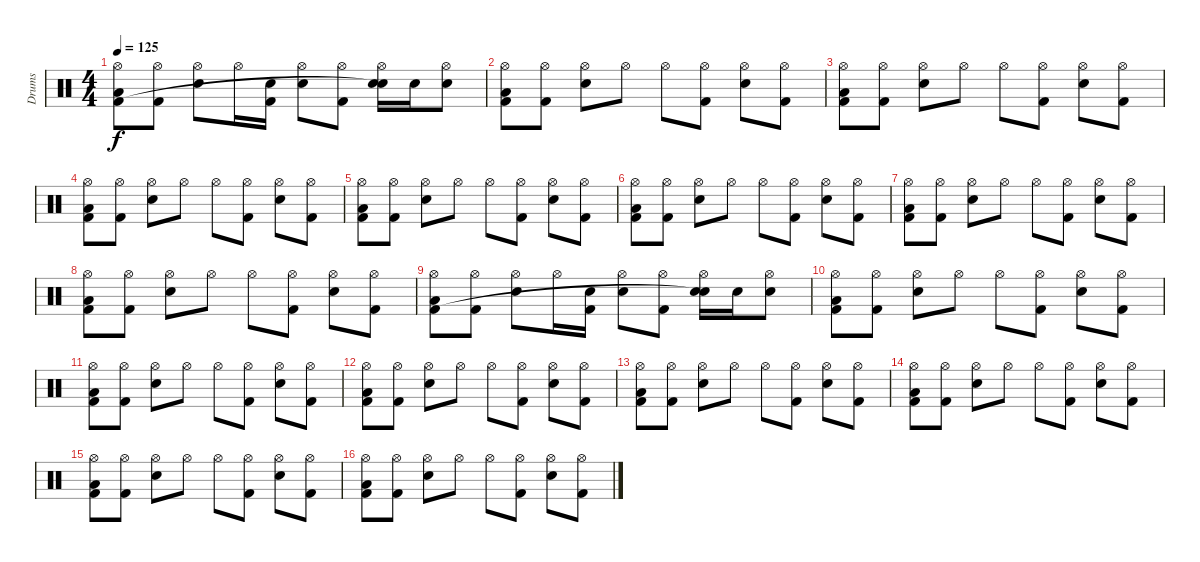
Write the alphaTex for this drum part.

\track ("Drums" "Drums") {instrument percussion}
\staff {score}
\articulation defaults
\ts (4 4)
\tempo 125
\clef neutral
\ks c
("Hi-Hat (open)" "Low Tom (hit)" "Kick (hit) 2").8{dy f} ("Hi-Hat (open)" "Kick (hit) 2").8 ("Hi-Hat (open)" "Snare (hit) 2").8 "Hi-Hat (open)".16 ("Snare (hit) 2" "Kick (hit) 2").16 ("Hi-Hat (open)" "Snare (hit) 2").8 ("Hi-Hat (open)" "Kick (hit) 2").8 ("Hi-Hat (open)" "Electric Snare (hit)" "Snare (hit)"{t}).16 "Electric Snare (hit)".16 ("Hi-Hat (open)" "Snare (hit) 2").8 |
("Hi-Hat (open)" "Low Tom (hit)" "Kick (hit) 2").8 ("Hi-Hat (open)" "Kick (hit) 2").8 ("Hi-Hat (open)" "Snare (hit) 2").8 "Hi-Hat (open)".8 "Hi-Hat (open)".8 ("Hi-Hat (open)" "Kick (hit) 2").8 ("Hi-Hat (open)" "Snare (hit) 2").8 ("Hi-Hat (open)" "Kick (hit) 2").8 |
("Hi-Hat (open)" "Low Tom (hit)" "Kick (hit) 2").8 ("Hi-Hat (open)" "Kick (hit) 2").8 ("Hi-Hat (open)" "Snare (hit) 2").8 "Hi-Hat (open)".8 "Hi-Hat (open)".8 ("Hi-Hat (open)" "Kick (hit) 2").8 ("Hi-Hat (open)" "Snare (hit) 2").8 ("Hi-Hat (open)" "Kick (hit) 2").8 |
("Hi-Hat (open)" "Low Tom (hit)" "Kick (hit) 2").8 ("Hi-Hat (open)" "Kick (hit) 2").8 ("Hi-Hat (open)" "Snare (hit) 2").8 "Hi-Hat (open)".8 "Hi-Hat (open)".8 ("Hi-Hat (open)" "Kick (hit) 2").8 ("Hi-Hat (open)" "Snare (hit) 2").8 ("Hi-Hat (open)" "Kick (hit) 2").8 |
("Hi-Hat (open)" "Low Tom (hit)" "Kick (hit) 2").8 ("Hi-Hat (open)" "Kick (hit) 2").8 ("Hi-Hat (open)" "Snare (hit) 2").8 "Hi-Hat (open)".8 "Hi-Hat (open)".8 ("Hi-Hat (open)" "Kick (hit) 2").8 ("Hi-Hat (open)" "Snare (hit) 2").8 ("Hi-Hat (open)" "Kick (hit) 2").8 |
("Hi-Hat (open)" "Low Tom (hit)" "Kick (hit) 2").8 ("Hi-Hat (open)" "Kick (hit) 2").8 ("Hi-Hat (open)" "Snare (hit) 2").8 "Hi-Hat (open)".8 "Hi-Hat (open)".8 ("Hi-Hat (open)" "Kick (hit) 2").8 ("Hi-Hat (open)" "Snare (hit) 2").8 ("Hi-Hat (open)" "Kick (hit) 2").8 |
("Hi-Hat (open)" "Low Tom (hit)" "Kick (hit) 2").8 ("Hi-Hat (open)" "Kick (hit) 2").8 ("Hi-Hat (open)" "Snare (hit) 2").8 "Hi-Hat (open)".8 "Hi-Hat (open)".8 ("Hi-Hat (open)" "Kick (hit) 2").8 ("Hi-Hat (open)" "Snare (hit) 2").8 ("Hi-Hat (open)" "Kick (hit) 2").8 |
("Hi-Hat (open)" "Low Tom (hit)" "Kick (hit) 2").8 ("Hi-Hat (open)" "Kick (hit) 2").8 ("Hi-Hat (open)" "Snare (hit) 2").8 "Hi-Hat (open)".8 "Hi-Hat (open)".8 ("Hi-Hat (open)" "Kick (hit) 2").8 ("Hi-Hat (open)" "Snare (hit) 2").8 ("Hi-Hat (open)" "Kick (hit) 2").8 |
("Hi-Hat (open)" "Low Tom (hit)" "Kick (hit) 2").8 ("Hi-Hat (open)" "Kick (hit) 2").8 ("Hi-Hat (open)" "Snare (hit) 2").8 "Hi-Hat (open)".16 ("Snare (hit) 2" "Kick (hit) 2").16 ("Hi-Hat (open)" "Snare (hit) 2").8 ("Hi-Hat (open)" "Kick (hit) 2").8 ("Hi-Hat (open)" "Electric Snare (hit)" "Snare (hit)"{t}).16 "Electric Snare (hit)".16 ("Hi-Hat (open)" "Snare (hit) 2").8 |
("Hi-Hat (open)" "Low Tom (hit)" "Kick (hit) 2").8 ("Hi-Hat (open)" "Kick (hit) 2").8 ("Hi-Hat (open)" "Snare (hit) 2").8 "Hi-Hat (open)".8 "Hi-Hat (open)".8 ("Hi-Hat (open)" "Kick (hit) 2").8 ("Hi-Hat (open)" "Snare (hit) 2").8 ("Hi-Hat (open)" "Kick (hit) 2").8 |
("Hi-Hat (open)" "Low Tom (hit)" "Kick (hit) 2").8 ("Hi-Hat (open)" "Kick (hit) 2").8 ("Hi-Hat (open)" "Snare (hit) 2").8 "Hi-Hat (open)".8 "Hi-Hat (open)".8 ("Hi-Hat (open)" "Kick (hit) 2").8 ("Hi-Hat (open)" "Snare (hit) 2").8 ("Hi-Hat (open)" "Kick (hit) 2").8 |
("Hi-Hat (open)" "Low Tom (hit)" "Kick (hit) 2").8 ("Hi-Hat (open)" "Kick (hit) 2").8 ("Hi-Hat (open)" "Snare (hit) 2").8 "Hi-Hat (open)".8 "Hi-Hat (open)".8 ("Hi-Hat (open)" "Kick (hit) 2").8 ("Hi-Hat (open)" "Snare (hit) 2").8 ("Hi-Hat (open)" "Kick (hit) 2").8 |
("Hi-Hat (open)" "Low Tom (hit)" "Kick (hit) 2").8 ("Hi-Hat (open)" "Kick (hit) 2").8 ("Hi-Hat (open)" "Snare (hit) 2").8 "Hi-Hat (open)".8 "Hi-Hat (open)".8 ("Hi-Hat (open)" "Kick (hit) 2").8 ("Hi-Hat (open)" "Snare (hit) 2").8 ("Hi-Hat (open)" "Kick (hit) 2").8 |
("Hi-Hat (open)" "Low Tom (hit)" "Kick (hit) 2").8 ("Hi-Hat (open)" "Kick (hit) 2").8 ("Hi-Hat (open)" "Snare (hit) 2").8 "Hi-Hat (open)".8 "Hi-Hat (open)".8 ("Hi-Hat (open)" "Kick (hit) 2").8 ("Hi-Hat (open)" "Snare (hit) 2").8 ("Hi-Hat (open)" "Kick (hit) 2").8 |
("Hi-Hat (open)" "Low Tom (hit)" "Kick (hit) 2").8 ("Hi-Hat (open)" "Kick (hit) 2").8 ("Hi-Hat (open)" "Snare (hit) 2").8 "Hi-Hat (open)".8 "Hi-Hat (open)".8 ("Hi-Hat (open)" "Kick (hit) 2").8 ("Hi-Hat (open)" "Snare (hit) 2").8 ("Hi-Hat (open)" "Kick (hit) 2").8 |
("Hi-Hat (open)" "Low Tom (hit)" "Kick (hit) 2").8 ("Hi-Hat (open)" "Kick (hit) 2").8 ("Hi-Hat (open)" "Snare (hit) 2").8 "Hi-Hat (open)".8 "Hi-Hat (open)".8 ("Hi-Hat (open)" "Kick (hit) 2").8 ("Hi-Hat (open)" "Snare (hit) 2").8 ("Hi-Hat (open)" "Kick (hit) 2").8
